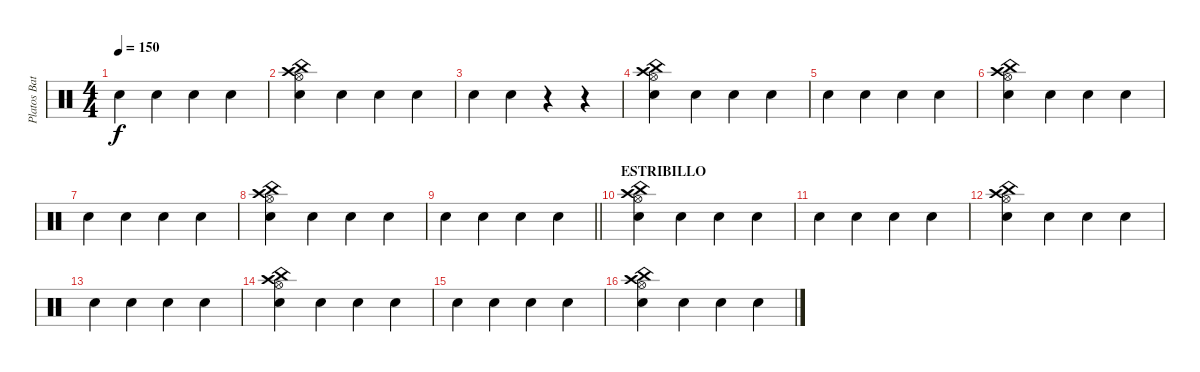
\track ("Platos Batería" "Platos Bat") {instrument percussion}
\staff {score}
\articulation defaults
\ts (4 4)
\tempo 150
\clef neutral
\ks c "Hand Clap (hit)".4{dy f} "Hand Clap (hit)".4 "Hand Clap (hit)".4 "Hand Clap (hit)".4
|
("Crash high (hit)" "China (hit)" "Hi-Hat (open)" "Hand Clap (hit)").4 "Hand Clap (hit)".4 "Hand Clap (hit)".4 "Hand Clap (hit)".4 |
"Hand Clap (hit)".4 "Hand Clap (hit)".4 r.4 r.4 |
("Crash high (hit)" "China (hit)" "Hi-Hat (open)" "Hand Clap (hit)").4 "Hand Clap (hit)".4 "Hand Clap (hit)".4 "Hand Clap (hit)".4 |
"Hand Clap (hit)".4 "Hand Clap (hit)".4 "Hand Clap (hit)".4 "Hand Clap (hit)".4 |
("Crash high (hit)" "China (hit)" "Hi-Hat (open)" "Hand Clap (hit)").4 "Hand Clap (hit)".4 "Hand Clap (hit)".4 "Hand Clap (hit)".4 |
"Hand Clap (hit)".4 "Hand Clap (hit)".4 "Hand Clap (hit)".4 "Hand Clap (hit)".4 |
("Crash high (hit)" "China (hit)" "Hi-Hat (open)" "Hand Clap (hit)").4 "Hand Clap (hit)".4 "Hand Clap (hit)".4 "Hand Clap (hit)".4 |
\barLineRight lightlight "Hand Clap (hit)".4 "Hand Clap (hit)".4 "Hand Clap (hit)".4 "Hand Clap (hit)".4
|
\section ("" "ESTRIBILLO")
("Crash high (hit)" "China (hit)" "Hi-Hat (open)" "Hand Clap (hit)").4 "Hand Clap (hit)".4 "Hand Clap (hit)".4 "Hand Clap (hit)".4 |
"Hand Clap (hit)".4 "Hand Clap (hit)".4 "Hand Clap (hit)".4 "Hand Clap (hit)".4 |
("Crash high (hit)" "China (hit)" "Hi-Hat (open)" "Hand Clap (hit)").4 "Hand Clap (hit)".4 "Hand Clap (hit)".4 "Hand Clap (hit)".4 |
"Hand Clap (hit)".4 "Hand Clap (hit)".4 "Hand Clap (hit)".4 "Hand Clap (hit)".4 |
("Crash high (hit)" "China (hit)" "Hi-Hat (open)" "Hand Clap (hit)").4 "Hand Clap (hit)".4 "Hand Clap (hit)".4 "Hand Clap (hit)".4 |
"Hand Clap (hit)".4 "Hand Clap (hit)".4 "Hand Clap (hit)".4 "Hand Clap (hit)".4 |
("Crash high (hit)" "China (hit)" "Hi-Hat (open)" "Hand Clap (hit)").4 "Hand Clap (hit)".4 "Hand Clap (hit)".4 "Hand Clap (hit)".4
